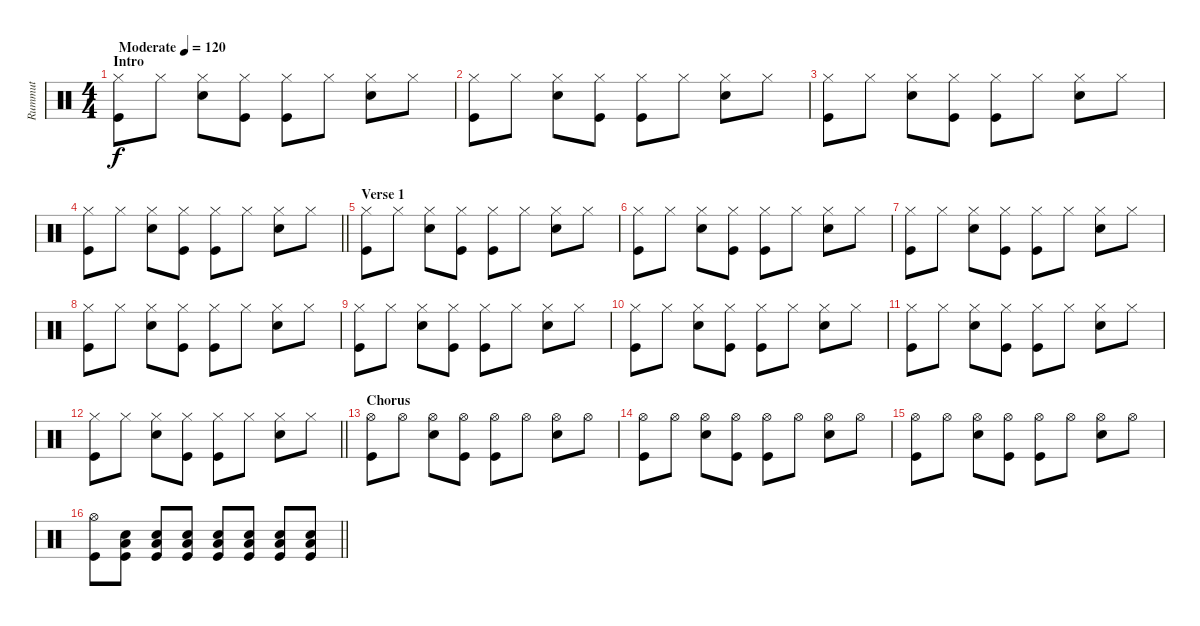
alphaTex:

\track ("Rummut" "Rummut") {instrument percussion}
\staff {score}
\articulation defaults
\ts (4 4)
\section ("" "Intro")
\tempo (120 "Moderate")
\clef neutral
\ks c
("Hi-Hat (closed)" "Kick (hit)").8{dy f} "Hi-Hat (closed)".8 ("Hi-Hat (closed)" "Snare (hit) 2").8 ("Hi-Hat (closed)" "Kick (hit)").8 ("Hi-Hat (closed)" "Kick (hit)").8 "Hi-Hat (closed)".8 ("Hi-Hat (closed)" "Snare (hit) 2").8 "Hi-Hat (closed)".8 |
("Hi-Hat (closed)" "Kick (hit)").8 "Hi-Hat (closed)".8 ("Hi-Hat (closed)" "Snare (hit) 2").8 ("Hi-Hat (closed)" "Kick (hit)").8 ("Hi-Hat (closed)" "Kick (hit)").8 "Hi-Hat (closed)".8 ("Hi-Hat (closed)" "Snare (hit) 2").8 "Hi-Hat (closed)".8 |
("Hi-Hat (closed)" "Kick (hit)").8 "Hi-Hat (closed)".8 ("Hi-Hat (closed)" "Snare (hit) 2").8 ("Hi-Hat (closed)" "Kick (hit)").8 ("Hi-Hat (closed)" "Kick (hit)").8 "Hi-Hat (closed)".8 ("Hi-Hat (closed)" "Snare (hit) 2").8 "Hi-Hat (closed)".8 |
\barLineRight lightlight
("Hi-Hat (closed)" "Kick (hit)").8 "Hi-Hat (closed)".8 ("Hi-Hat (closed)" "Snare (hit) 2").8 ("Hi-Hat (closed)" "Kick (hit)").8 ("Hi-Hat (closed)" "Kick (hit)").8 "Hi-Hat (closed)".8 ("Hi-Hat (closed)" "Snare (hit) 2").8 "Hi-Hat (closed)".8 |
\section ("" "Verse 1")
("Hi-Hat (closed)" "Kick (hit)").8 "Hi-Hat (closed)".8 ("Hi-Hat (closed)" "Snare (hit) 2").8 ("Hi-Hat (closed)" "Kick (hit)").8 ("Hi-Hat (closed)" "Kick (hit)").8 "Hi-Hat (closed)".8 ("Hi-Hat (closed)" "Snare (hit) 2").8 "Hi-Hat (closed)".8 |
("Hi-Hat (closed)" "Kick (hit)").8 "Hi-Hat (closed)".8 ("Hi-Hat (closed)" "Snare (hit) 2").8 ("Hi-Hat (closed)" "Kick (hit)").8 ("Hi-Hat (closed)" "Kick (hit)").8 "Hi-Hat (closed)".8 ("Hi-Hat (closed)" "Snare (hit) 2").8 "Hi-Hat (closed)".8 |
("Hi-Hat (closed)" "Kick (hit)").8 "Hi-Hat (closed)".8 ("Hi-Hat (closed)" "Snare (hit) 2").8 ("Hi-Hat (closed)" "Kick (hit)").8 ("Hi-Hat (closed)" "Kick (hit)").8 "Hi-Hat (closed)".8 ("Hi-Hat (closed)" "Snare (hit) 2").8 "Hi-Hat (closed)".8 |
("Hi-Hat (closed)" "Kick (hit)").8 "Hi-Hat (closed)".8 ("Hi-Hat (closed)" "Snare (hit) 2").8 ("Hi-Hat (closed)" "Kick (hit)").8 ("Hi-Hat (closed)" "Kick (hit)").8 "Hi-Hat (closed)".8 ("Hi-Hat (closed)" "Snare (hit) 2").8 "Hi-Hat (closed)".8 |
("Hi-Hat (closed)" "Kick (hit)").8 "Hi-Hat (closed)".8 ("Hi-Hat (closed)" "Snare (hit) 2").8 ("Hi-Hat (closed)" "Kick (hit)").8 ("Hi-Hat (closed)" "Kick (hit)").8 "Hi-Hat (closed)".8 ("Hi-Hat (closed)" "Snare (hit) 2").8 "Hi-Hat (closed)".8 |
("Hi-Hat (closed)" "Kick (hit)").8 "Hi-Hat (closed)".8 ("Hi-Hat (closed)" "Snare (hit) 2").8 ("Hi-Hat (closed)" "Kick (hit)").8 ("Hi-Hat (closed)" "Kick (hit)").8 "Hi-Hat (closed)".8 ("Hi-Hat (closed)" "Snare (hit) 2").8 "Hi-Hat (closed)".8 |
("Hi-Hat (closed)" "Kick (hit)").8 "Hi-Hat (closed)".8 ("Hi-Hat (closed)" "Snare (hit) 2").8 ("Hi-Hat (closed)" "Kick (hit)").8 ("Hi-Hat (closed)" "Kick (hit)").8 "Hi-Hat (closed)".8 ("Hi-Hat (closed)" "Snare (hit) 2").8 "Hi-Hat (closed)".8 |
\barLineRight lightlight
("Hi-Hat (closed)" "Kick (hit)").8 "Hi-Hat (closed)".8 ("Hi-Hat (closed)" "Snare (hit) 2").8 ("Hi-Hat (closed)" "Kick (hit)").8 ("Hi-Hat (closed)" "Kick (hit)").8 "Hi-Hat (closed)".8 ("Hi-Hat (closed)" "Snare (hit) 2").8 "Hi-Hat (closed)".8 |
\section ("" "Chorus")
("Hi-Hat (open)" "Kick (hit)").8 "Hi-Hat (open)".8 ("Hi-Hat (open)" "Snare (hit) 2").8 ("Hi-Hat (open)" "Kick (hit)").8 ("Hi-Hat (open)" "Kick (hit)").8 "Hi-Hat (open)".8 ("Hi-Hat (open)" "Snare (hit) 2").8 "Hi-Hat (open)".8 |
("Hi-Hat (open)" "Kick (hit)").8 "Hi-Hat (open)".8 ("Hi-Hat (open)" "Snare (hit) 2").8 ("Hi-Hat (open)" "Kick (hit)").8 ("Hi-Hat (open)" "Kick (hit)").8 "Hi-Hat (open)".8 ("Hi-Hat (open)" "Snare (hit) 2").8 "Hi-Hat (open)".8 |
("Hi-Hat (open)" "Kick (hit)").8 "Hi-Hat (open)".8 ("Hi-Hat (open)" "Snare (hit) 2").8 ("Hi-Hat (open)" "Kick (hit)").8 ("Hi-Hat (open)" "Kick (hit)").8 "Hi-Hat (open)".8 ("Hi-Hat (open)" "Snare (hit) 2").8 "Hi-Hat (open)".8 |
\barLineRight lightlight
("Hi-Hat (open)" "Kick (hit)").8 ("Snare (hit) 2" "Kick (hit)" "Low Floor Tom (hit)").8 ("Snare (hit) 2" "Kick (hit)" "Low Floor Tom (hit)").8 ("Snare (hit) 2" "Kick (hit)" "Low Floor Tom (hit)").8 ("Snare (hit) 2" "Kick (hit)" "Low Floor Tom (hit)").8 ("Snare (hit) 2" "Kick (hit)" "Low Floor Tom (hit)").8 ("Snare (hit) 2" "Kick (hit)" "Low Floor Tom (hit)").8 ("Snare (hit) 2" "Kick (hit)" "Low Floor Tom (hit)").8
